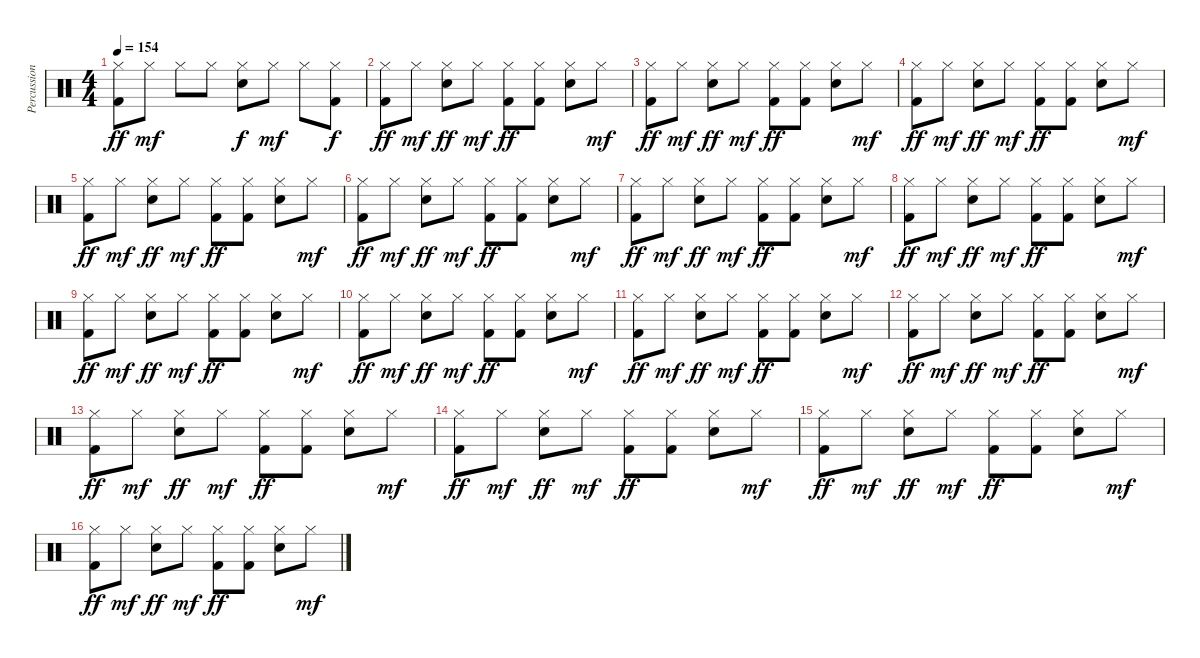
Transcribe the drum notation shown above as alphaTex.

\track ("Percussions" "Percussion") {instrument percussion}
\staff {score}
\articulation defaults
\ts (4 4)
\tempo 154
\clef neutral
\ks c
("Hi-Hat (closed)" "Kick (hit) 2").8{dy ff} "Hi-Hat (closed)".8{dy mf} "Hi-Hat (closed)".8 "Hi-Hat (closed)".8 ("Hi-Hat (closed)" "Electric Snare (hit)").8{dy f} "Hi-Hat (closed)".8{dy mf} "Hi-Hat (closed)".8 ("Hi-Hat (closed)" "Kick (hit) 2").8{dy f} |
("Hi-Hat (closed)" "Kick (hit) 2").8{dy ff} "Hi-Hat (closed)".8{dy mf} ("Hi-Hat (closed)" "Electric Snare (hit)").8{dy ff} "Hi-Hat (closed)".8{dy mf} ("Hi-Hat (closed)" "Kick (hit) 2").8{dy ff} ("Hi-Hat (closed)" "Kick (hit) 2").8 ("Hi-Hat (closed)" "Electric Snare (hit)").8 "Hi-Hat (closed)".8{dy mf} |
("Hi-Hat (closed)" "Kick (hit) 2").8{dy ff} "Hi-Hat (closed)".8{dy mf} ("Hi-Hat (closed)" "Electric Snare (hit)").8{dy ff} "Hi-Hat (closed)".8{dy mf} ("Hi-Hat (closed)" "Kick (hit) 2").8{dy ff} ("Hi-Hat (closed)" "Kick (hit) 2").8 ("Hi-Hat (closed)" "Electric Snare (hit)").8 "Hi-Hat (closed)".8{dy mf} |
("Hi-Hat (closed)" "Kick (hit) 2").8{dy ff} "Hi-Hat (closed)".8{dy mf} ("Hi-Hat (closed)" "Electric Snare (hit)").8{dy ff} "Hi-Hat (closed)".8{dy mf} ("Hi-Hat (closed)" "Kick (hit) 2").8{dy ff} ("Hi-Hat (closed)" "Kick (hit) 2").8 ("Hi-Hat (closed)" "Electric Snare (hit)").8 "Hi-Hat (closed)".8{dy mf} |
("Hi-Hat (closed)" "Kick (hit) 2").8{dy ff} "Hi-Hat (closed)".8{dy mf} ("Hi-Hat (closed)" "Electric Snare (hit)").8{dy ff} "Hi-Hat (closed)".8{dy mf} ("Hi-Hat (closed)" "Kick (hit) 2").8{dy ff} ("Hi-Hat (closed)" "Kick (hit) 2").8 ("Hi-Hat (closed)" "Electric Snare (hit)").8 "Hi-Hat (closed)".8{dy mf} |
("Hi-Hat (closed)" "Kick (hit) 2").8{dy ff} "Hi-Hat (closed)".8{dy mf} ("Hi-Hat (closed)" "Electric Snare (hit)").8{dy ff} "Hi-Hat (closed)".8{dy mf} ("Hi-Hat (closed)" "Kick (hit) 2").8{dy ff} ("Hi-Hat (closed)" "Kick (hit) 2").8 ("Hi-Hat (closed)" "Electric Snare (hit)").8 "Hi-Hat (closed)".8{dy mf} |
("Hi-Hat (closed)" "Kick (hit) 2").8{dy ff} "Hi-Hat (closed)".8{dy mf} ("Hi-Hat (closed)" "Electric Snare (hit)").8{dy ff} "Hi-Hat (closed)".8{dy mf} ("Hi-Hat (closed)" "Kick (hit) 2").8{dy ff} ("Hi-Hat (closed)" "Kick (hit) 2").8 ("Hi-Hat (closed)" "Electric Snare (hit)").8 "Hi-Hat (closed)".8{dy mf} |
("Hi-Hat (closed)" "Kick (hit) 2").8{dy ff} "Hi-Hat (closed)".8{dy mf} ("Hi-Hat (closed)" "Electric Snare (hit)").8{dy ff} "Hi-Hat (closed)".8{dy mf} ("Hi-Hat (closed)" "Kick (hit) 2").8{dy ff} ("Hi-Hat (closed)" "Kick (hit) 2").8 ("Hi-Hat (closed)" "Electric Snare (hit)").8 "Hi-Hat (closed)".8{dy mf} |
("Hi-Hat (closed)" "Kick (hit) 2").8{dy ff} "Hi-Hat (closed)".8{dy mf} ("Hi-Hat (closed)" "Electric Snare (hit)").8{dy ff} "Hi-Hat (closed)".8{dy mf} ("Hi-Hat (closed)" "Kick (hit) 2").8{dy ff} ("Hi-Hat (closed)" "Kick (hit) 2").8 ("Hi-Hat (closed)" "Electric Snare (hit)").8 "Hi-Hat (closed)".8{dy mf} |
("Hi-Hat (closed)" "Kick (hit) 2").8{dy ff} "Hi-Hat (closed)".8{dy mf} ("Hi-Hat (closed)" "Electric Snare (hit)").8{dy ff} "Hi-Hat (closed)".8{dy mf} ("Hi-Hat (closed)" "Kick (hit) 2").8{dy ff} ("Hi-Hat (closed)" "Kick (hit) 2").8 ("Hi-Hat (closed)" "Electric Snare (hit)").8 "Hi-Hat (closed)".8{dy mf} |
("Hi-Hat (closed)" "Kick (hit) 2").8{dy ff} "Hi-Hat (closed)".8{dy mf} ("Hi-Hat (closed)" "Electric Snare (hit)").8{dy ff} "Hi-Hat (closed)".8{dy mf} ("Hi-Hat (closed)" "Kick (hit) 2").8{dy ff} ("Hi-Hat (closed)" "Kick (hit) 2").8 ("Hi-Hat (closed)" "Electric Snare (hit)").8 "Hi-Hat (closed)".8{dy mf} |
("Hi-Hat (closed)" "Kick (hit) 2").8{dy ff} "Hi-Hat (closed)".8{dy mf} ("Hi-Hat (closed)" "Electric Snare (hit)").8{dy ff} "Hi-Hat (closed)".8{dy mf} ("Hi-Hat (closed)" "Kick (hit) 2").8{dy ff} ("Hi-Hat (closed)" "Kick (hit) 2").8 ("Hi-Hat (closed)" "Electric Snare (hit)").8 "Hi-Hat (closed)".8{dy mf} |
("Hi-Hat (closed)" "Kick (hit) 2").8{dy ff} "Hi-Hat (closed)".8{dy mf} ("Hi-Hat (closed)" "Electric Snare (hit)").8{dy ff} "Hi-Hat (closed)".8{dy mf} ("Hi-Hat (closed)" "Kick (hit) 2").8{dy ff} ("Hi-Hat (closed)" "Kick (hit) 2").8 ("Hi-Hat (closed)" "Electric Snare (hit)").8 "Hi-Hat (closed)".8{dy mf} |
("Hi-Hat (closed)" "Kick (hit) 2").8{dy ff} "Hi-Hat (closed)".8{dy mf} ("Hi-Hat (closed)" "Electric Snare (hit)").8{dy ff} "Hi-Hat (closed)".8{dy mf} ("Hi-Hat (closed)" "Kick (hit) 2").8{dy ff} ("Hi-Hat (closed)" "Kick (hit) 2").8 ("Hi-Hat (closed)" "Electric Snare (hit)").8 "Hi-Hat (closed)".8{dy mf} |
("Hi-Hat (closed)" "Kick (hit) 2").8{dy ff} "Hi-Hat (closed)".8{dy mf} ("Hi-Hat (closed)" "Electric Snare (hit)").8{dy ff} "Hi-Hat (closed)".8{dy mf} ("Hi-Hat (closed)" "Kick (hit) 2").8{dy ff} ("Hi-Hat (closed)" "Kick (hit) 2").8 ("Hi-Hat (closed)" "Electric Snare (hit)").8 "Hi-Hat (closed)".8{dy mf} |
("Hi-Hat (closed)" "Kick (hit) 2").8{dy ff} "Hi-Hat (closed)".8{dy mf} ("Hi-Hat (closed)" "Electric Snare (hit)").8{dy ff} "Hi-Hat (closed)".8{dy mf} ("Hi-Hat (closed)" "Kick (hit) 2").8{dy ff} ("Hi-Hat (closed)" "Kick (hit) 2").8 ("Hi-Hat (closed)" "Electric Snare (hit)").8 "Hi-Hat (closed)".8{dy mf}
